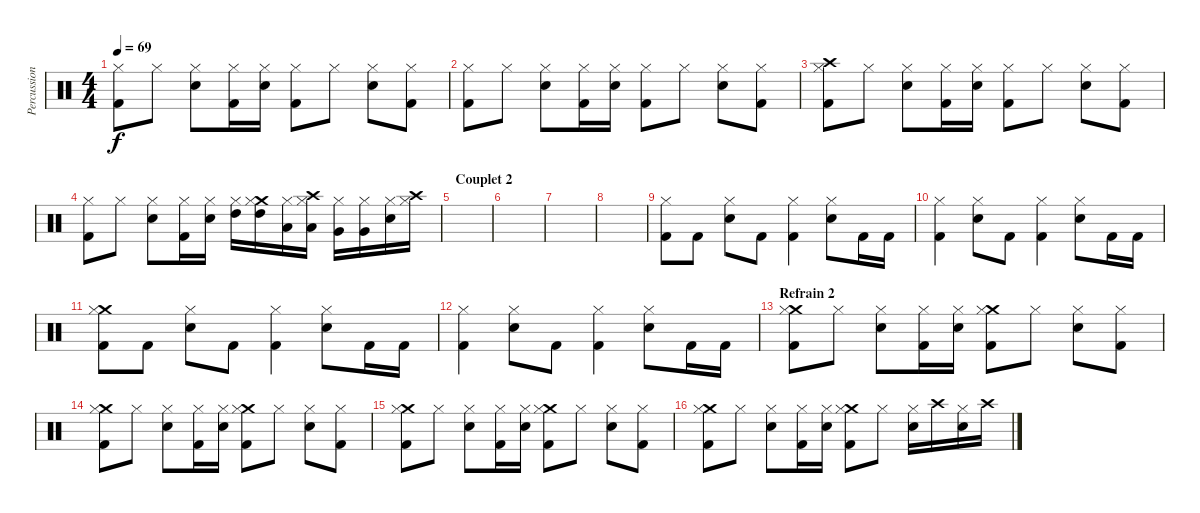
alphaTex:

\track ("Percussions" "Percussion") {instrument percussion}
\staff {score}
\articulation defaults
\ts (4 4)
\tempo 69
\clef neutral
\ks c
("Kick (hit) 2" "Hi-Hat (closed)").8{dy f} "Hi-Hat (closed)".8 ("Electric Snare (hit)" "Hi-Hat (closed)").8 ("Kick (hit) 2" "Hi-Hat (closed)").16 ("Electric Snare (hit)" "Hi-Hat (closed)").16 ("Kick (hit) 2" "Hi-Hat (closed)").8 "Hi-Hat (closed)".8 ("Electric Snare (hit)" "Hi-Hat (closed)").8 ("Kick (hit) 2" "Hi-Hat (closed)").8 |
("Kick (hit) 2" "Hi-Hat (closed)").8 "Hi-Hat (closed)".8 ("Electric Snare (hit)" "Hi-Hat (closed)").8 ("Kick (hit) 2" "Hi-Hat (closed)").16 ("Electric Snare (hit)" "Hi-Hat (closed)").16 ("Kick (hit) 2" "Hi-Hat (closed)").8 "Hi-Hat (closed)".8 ("Electric Snare (hit)" "Hi-Hat (closed)").8 ("Kick (hit) 2" "Hi-Hat (closed)").8 |
("Crash high (hit)" "Kick (hit) 2" "Hi-Hat (closed)").8 "Hi-Hat (closed)".8 ("Electric Snare (hit)" "Hi-Hat (closed)").8 ("Kick (hit) 2" "Hi-Hat (closed)").16 ("Electric Snare (hit)" "Hi-Hat (closed)").16 ("Kick (hit) 2" "Hi-Hat (closed)").8 "Hi-Hat (closed)".8 ("Electric Snare (hit)" "Hi-Hat (closed)").8 ("Kick (hit) 2" "Hi-Hat (closed)").8 |
("Kick (hit) 2" "Hi-Hat (closed)").8 "Hi-Hat (closed)".8 ("Electric Snare (hit)" "Hi-Hat (closed)").8 ("Kick (hit) 2" "Hi-Hat (closed)").16 ("Electric Snare (hit)" "Hi-Hat (closed)").16 ("High Tom (hit)" "Hi-Hat (closed)").16 ("Crash medium (hit)" "High Tom (hit)" "Hi-Hat (closed)").16 ("Low Tom (hit)" "Hi-Hat (closed)").16 ("Crash high (hit)" "Low Tom (hit)" "Hi-Hat (closed)").16 ("Very Low Tom (hit)" "Hi-Hat (closed)").16 ("Very Low Tom (hit)" "Hi-Hat (closed)").16 ("Electric Snare (hit)" "Hi-Hat (closed)").16 ("Crash high (hit)" "Hi-Hat (closed)").16 |
\section ("" "Couplet 2")
|
|
|
|
("Kick (hit) 2" "Hi-Hat (closed)").8 "Kick (hit) 2".8 ("Electric Snare (hit)" "Hi-Hat (closed)").8 "Kick (hit) 2".8 ("Kick (hit) 2" "Hi-Hat (closed)").4 ("Electric Snare (hit)" "Hi-Hat (closed)").8 "Kick (hit) 2".16 "Kick (hit) 2".16 |
("Kick (hit) 2" "Hi-Hat (closed)").4 ("Electric Snare (hit)" "Hi-Hat (closed)").8 "Kick (hit) 2".8 ("Kick (hit) 2" "Hi-Hat (closed)").4 ("Electric Snare (hit)" "Hi-Hat (closed)").8 "Kick (hit) 2".16 "Kick (hit) 2".16 |
("Crash medium (hit)" "Kick (hit) 2" "Hi-Hat (closed)").8 "Kick (hit) 2".8 ("Electric Snare (hit)" "Hi-Hat (closed)").8 "Kick (hit) 2".8 ("Kick (hit) 2" "Hi-Hat (closed)").4 ("Electric Snare (hit)" "Hi-Hat (closed)").8 "Kick (hit) 2".16 "Kick (hit) 2".16 |
("Kick (hit) 2" "Hi-Hat (closed)").4 ("Electric Snare (hit)" "Hi-Hat (closed)").8 "Kick (hit) 2".8 ("Kick (hit) 2" "Hi-Hat (closed)").4 ("Electric Snare (hit)" "Hi-Hat (closed)").8 "Kick (hit) 2".16 "Kick (hit) 2".16 |
\section ("" "Refrain 2")
("Crash medium (hit)" "Kick (hit) 2" "Hi-Hat (closed)").8 "Hi-Hat (closed)".8 ("Electric Snare (hit)" "Hi-Hat (closed)").8 ("Kick (hit) 2" "Hi-Hat (closed)").16 ("Electric Snare (hit)" "Hi-Hat (closed)").16 ("Crash medium (hit)" "Kick (hit) 2" "Hi-Hat (closed)").8 "Hi-Hat (closed)".8 ("Electric Snare (hit)" "Hi-Hat (closed)").8 ("Kick (hit) 2" "Hi-Hat (closed)").8 |
("Crash medium (hit)" "Kick (hit) 2" "Hi-Hat (closed)").8 "Hi-Hat (closed)".8 ("Electric Snare (hit)" "Hi-Hat (closed)").8 ("Kick (hit) 2" "Hi-Hat (closed)").16 ("Electric Snare (hit)" "Hi-Hat (closed)").16 ("Crash medium (hit)" "Kick (hit) 2" "Hi-Hat (closed)").8 "Hi-Hat (closed)".8 ("Electric Snare (hit)" "Hi-Hat (closed)").8 ("Kick (hit) 2" "Hi-Hat (closed)").8 |
("Crash medium (hit)" "Kick (hit) 2" "Hi-Hat (closed)").8 "Hi-Hat (closed)".8 ("Electric Snare (hit)" "Hi-Hat (closed)").8 ("Kick (hit) 2" "Hi-Hat (closed)").16 ("Electric Snare (hit)" "Hi-Hat (closed)").16 ("Crash medium (hit)" "Kick (hit) 2" "Hi-Hat (closed)").8 "Hi-Hat (closed)".8 ("Electric Snare (hit)" "Hi-Hat (closed)").8 ("Kick (hit) 2" "Hi-Hat (closed)").8 |
("Crash medium (hit)" "Kick (hit) 2" "Hi-Hat (closed)").8 "Hi-Hat (closed)".8 ("Electric Snare (hit)" "Hi-Hat (closed)").8 ("Kick (hit) 2" "Hi-Hat (closed)").16 ("Electric Snare (hit)" "Hi-Hat (closed)").16 ("Crash medium (hit)" "Kick (hit) 2" "Hi-Hat (closed)").8 "Hi-Hat (closed)".8 ("Electric Snare (hit)" "Hi-Hat (closed)").16 "Crash high (hit)".16 ("Electric Snare (hit)" "Hi-Hat (closed)").16 "Crash high (hit)".16
